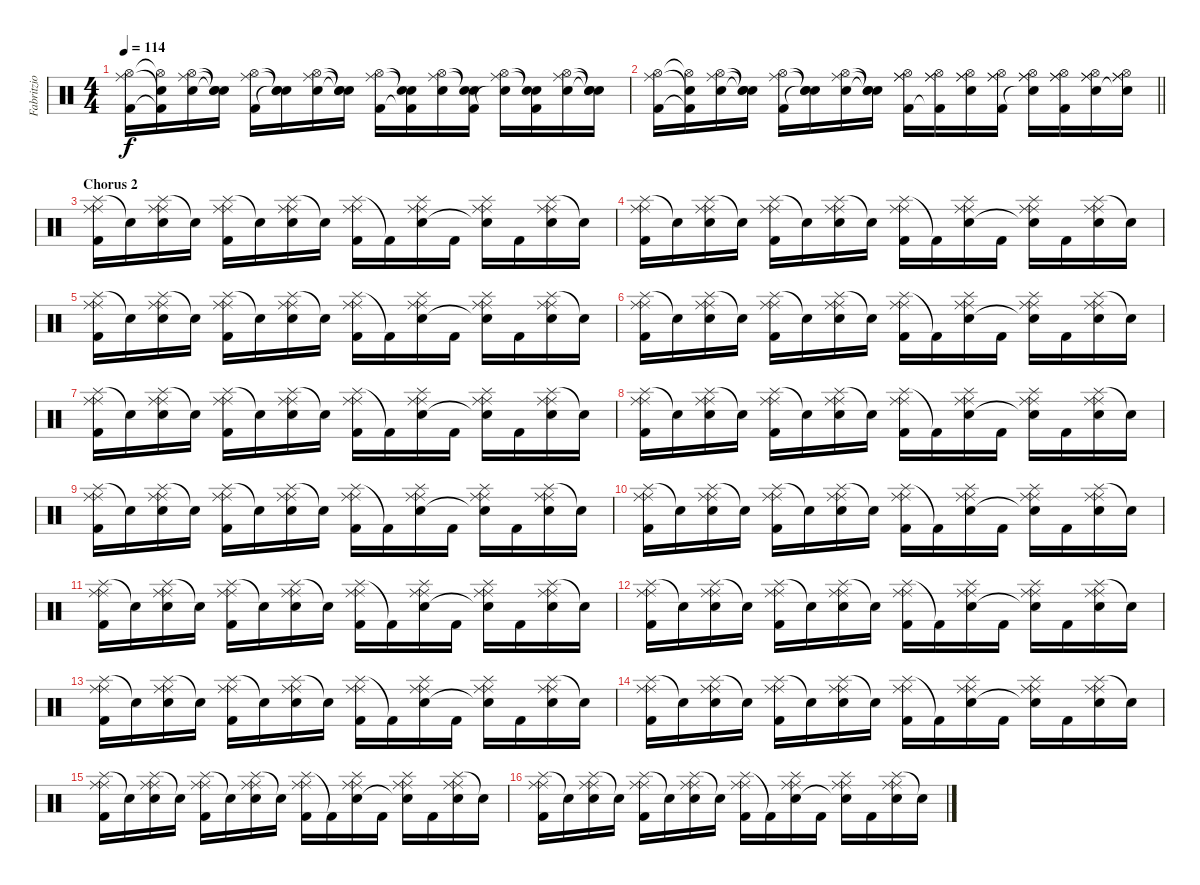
\track ("Fabritzio Moretti" "Fabritzio ") {instrument percussion}
\staff {score}
\articulation defaults
\ts (4 4)
\tempo 114
\clef neutral
\ks c
("Hi-Hat (open)" "Ride (middle)" "Kick (hit) 2").16{dy f} ("Hi-Hat (open)"{t} "Snare (hit)"{t} "Kick (hit) 2"{t}).16 ("Hi-Hat (open)" "Ride (middle)" "Snare (hit) 2").16 ("Snare (hit)"{t} "Snare (hit)"{t} "Snare (hit)"{t}).16 ("Hi-Hat (open)" "Ride (middle)" "Kick (hit) 2").16 ("Snare (hit)"{t} "Snare (hit)"{t} "Snare (hit)"{t}).16 ("Hi-Hat (open)" "Ride (middle)" "Snare (hit) 2").16 ("Snare (hit)"{t} "Snare (hit)"{t} "Snare (hit)"{t}).16 ("Hi-Hat (open)" "Ride (middle)" "Kick (hit) 2").16 ("Snare (hit)"{t} "Snare (hit)"{t} "Kick (hit) 2"{t}).16 ("Hi-Hat (open)" "Ride (middle)" "Snare (hit) 2").16 ("Snare (hit)"{t} "Snare (hit)"{t} "Kick (hit) 2").16 ("Hi-Hat (open)" "Ride (middle)" "Snare (hit)"{t}).16 ("Snare (hit)"{t} "Snare (hit)"{t} "Kick (hit) 2").16 ("Hi-Hat (open)" "Ride (middle)" "Snare (hit) 2").16 ("Snare (hit)"{t} "Snare (hit)"{t} "Snare (hit)"{t}).16 |
\barLineRight lightlight
("Hi-Hat (open)" "Ride (middle)" "Kick (hit) 2").16 ("Hi-Hat (open)"{t} "Snare (hit)"{t} "Kick (hit) 2"{t}).16 ("Hi-Hat (open)" "Ride (middle)" "Snare (hit) 2").16 ("Snare (hit)"{t} "Snare (hit)"{t} "Snare (hit)"{t}).16 ("Hi-Hat (open)" "Ride (middle)" "Kick (hit) 2").16 ("Snare (hit)"{t} "Snare (hit)"{t} "Snare (hit)"{t}).16 ("Hi-Hat (open)" "Ride (middle)" "Snare (hit) 2").16 ("Snare (hit)"{t} "Snare (hit)"{t} "Snare (hit)"{t}).16 ("Ride (middle)" "Hi-Hat (open)" "Ride (middle)" "Kick (hit) 2").16 ("Ride (middle)" "Hi-Hat (open)" "Ride (middle)" "Kick (hit) 2"{t}).16 ("Ride (middle)" "Hi-Hat (open)" "Ride (middle)" "Snare (hit) 2").16 ("Ride (middle)" "Hi-Hat (open)" "Ride (middle)" "Kick (hit) 2").16 ("Ride (middle)" "Hi-Hat (open)" "Ride (middle)" "Snare (hit)"{t}).16 ("Ride (middle)" "Hi-Hat (open)" "Ride (middle)" "Kick (hit) 2").16 ("Ride (middle)" "Hi-Hat (open)" "Ride (middle)" "Snare (hit) 2").16 ("Ride (middle)" "Hi-Hat (open)" "Ride (middle)" "Snare (hit)"{t}).16 |
\section ("" "Chorus 2")
("Splash (hit)" "Ride (middle)" "Ride (middle)" "Kick (hit) 2").16 "Snare (hit)"{t}.16 ("Splash (hit)" "Ride (middle)" "Ride (middle)" "Snare (hit) 2").16 "Snare (hit)"{t}.16 ("Splash (hit)" "Ride (middle)" "Ride (middle)" "Kick (hit) 2").16 "Snare (hit)"{t}.16 ("Splash (hit)" "Ride (middle)" "Ride (middle)" "Snare (hit) 2").16 "Snare (hit)"{t}.16 ("Splash (hit)" "Ride (middle)" "Ride (middle)" "Kick (hit) 2").16 "Kick (hit) 2"{t}.16 ("Splash (hit)" "Ride (middle)" "Ride (middle)" "Snare (hit) 2").16 "Kick (hit) 2".16 ("Splash (hit)" "Ride (middle)" "Ride (middle)" "Snare (hit)"{t}).16 "Kick (hit) 2".16 ("Splash (hit)" "Ride (middle)" "Ride (middle)" "Snare (hit) 2").16 "Snare (hit)"{t}.16 |
("Splash (hit)" "Ride (middle)" "Ride (middle)" "Kick (hit) 2").16 "Snare (hit)"{t}.16 ("Splash (hit)" "Ride (middle)" "Ride (middle)" "Snare (hit) 2").16 "Snare (hit)"{t}.16 ("Splash (hit)" "Ride (middle)" "Ride (middle)" "Kick (hit) 2").16 "Snare (hit)"{t}.16 ("Splash (hit)" "Ride (middle)" "Ride (middle)" "Snare (hit) 2").16 "Snare (hit)"{t}.16 ("Splash (hit)" "Ride (middle)" "Ride (middle)" "Kick (hit) 2").16 "Kick (hit) 2"{t}.16 ("Splash (hit)" "Ride (middle)" "Ride (middle)" "Snare (hit) 2").16 "Kick (hit) 2".16 ("Splash (hit)" "Ride (middle)" "Ride (middle)" "Snare (hit)"{t}).16 "Kick (hit) 2".16 ("Splash (hit)" "Ride (middle)" "Ride (middle)" "Snare (hit) 2").16 "Snare (hit)"{t}.16 |
("Splash (hit)" "Ride (middle)" "Ride (middle)" "Kick (hit) 2").16 "Snare (hit)"{t}.16 ("Splash (hit)" "Ride (middle)" "Ride (middle)" "Snare (hit) 2").16 "Snare (hit)"{t}.16 ("Splash (hit)" "Ride (middle)" "Ride (middle)" "Kick (hit) 2").16 "Snare (hit)"{t}.16 ("Splash (hit)" "Ride (middle)" "Ride (middle)" "Snare (hit) 2").16 "Snare (hit)"{t}.16 ("Splash (hit)" "Ride (middle)" "Ride (middle)" "Kick (hit) 2").16 "Kick (hit) 2"{t}.16 ("Splash (hit)" "Ride (middle)" "Ride (middle)" "Snare (hit) 2").16 "Kick (hit) 2".16 ("Splash (hit)" "Ride (middle)" "Ride (middle)" "Snare (hit)"{t}).16 "Kick (hit) 2".16 ("Splash (hit)" "Ride (middle)" "Ride (middle)" "Snare (hit) 2").16 "Snare (hit)"{t}.16 |
("Splash (hit)" "Ride (middle)" "Ride (middle)" "Kick (hit) 2").16 "Snare (hit)"{t}.16 ("Splash (hit)" "Ride (middle)" "Ride (middle)" "Snare (hit) 2").16 "Snare (hit)"{t}.16 ("Splash (hit)" "Ride (middle)" "Ride (middle)" "Kick (hit) 2").16 "Snare (hit)"{t}.16 ("Splash (hit)" "Ride (middle)" "Ride (middle)" "Snare (hit) 2").16 "Snare (hit)"{t}.16 ("Splash (hit)" "Ride (middle)" "Ride (middle)" "Kick (hit) 2").16 "Kick (hit) 2"{t}.16 ("Splash (hit)" "Ride (middle)" "Ride (middle)" "Snare (hit) 2").16 "Kick (hit) 2".16 ("Splash (hit)" "Ride (middle)" "Ride (middle)" "Snare (hit)"{t}).16 "Kick (hit) 2".16 ("Splash (hit)" "Ride (middle)" "Ride (middle)" "Snare (hit) 2").16 "Snare (hit)"{t}.16 |
("Splash (hit)" "Ride (middle)" "Ride (middle)" "Kick (hit) 2").16 "Snare (hit)"{t}.16 ("Splash (hit)" "Ride (middle)" "Ride (middle)" "Snare (hit) 2").16 "Snare (hit)"{t}.16 ("Splash (hit)" "Ride (middle)" "Ride (middle)" "Kick (hit) 2").16 "Snare (hit)"{t}.16 ("Splash (hit)" "Ride (middle)" "Ride (middle)" "Snare (hit) 2").16 "Snare (hit)"{t}.16 ("Splash (hit)" "Ride (middle)" "Ride (middle)" "Kick (hit) 2").16 "Kick (hit) 2"{t}.16 ("Splash (hit)" "Ride (middle)" "Ride (middle)" "Snare (hit) 2").16 "Kick (hit) 2".16 ("Splash (hit)" "Ride (middle)" "Ride (middle)" "Snare (hit)"{t}).16 "Kick (hit) 2".16 ("Splash (hit)" "Ride (middle)" "Ride (middle)" "Snare (hit) 2").16 "Snare (hit)"{t}.16 |
("Splash (hit)" "Ride (middle)" "Ride (middle)" "Kick (hit) 2").16 "Snare (hit)"{t}.16 ("Splash (hit)" "Ride (middle)" "Ride (middle)" "Snare (hit) 2").16 "Snare (hit)"{t}.16 ("Splash (hit)" "Ride (middle)" "Ride (middle)" "Kick (hit) 2").16 "Snare (hit)"{t}.16 ("Splash (hit)" "Ride (middle)" "Ride (middle)" "Snare (hit) 2").16 "Snare (hit)"{t}.16 ("Splash (hit)" "Ride (middle)" "Ride (middle)" "Kick (hit) 2").16 "Kick (hit) 2"{t}.16 ("Splash (hit)" "Ride (middle)" "Ride (middle)" "Snare (hit) 2").16 "Kick (hit) 2".16 ("Splash (hit)" "Ride (middle)" "Ride (middle)" "Snare (hit)"{t}).16 "Kick (hit) 2".16 ("Splash (hit)" "Ride (middle)" "Ride (middle)" "Snare (hit) 2").16 "Snare (hit)"{t}.16 |
("Splash (hit)" "Ride (middle)" "Ride (middle)" "Kick (hit) 2").16 "Snare (hit)"{t}.16 ("Splash (hit)" "Ride (middle)" "Ride (middle)" "Snare (hit) 2").16 "Snare (hit)"{t}.16 ("Splash (hit)" "Ride (middle)" "Ride (middle)" "Kick (hit) 2").16 "Snare (hit)"{t}.16 ("Splash (hit)" "Ride (middle)" "Ride (middle)" "Snare (hit) 2").16 "Snare (hit)"{t}.16 ("Splash (hit)" "Ride (middle)" "Ride (middle)" "Kick (hit) 2").16 "Kick (hit) 2"{t}.16 ("Splash (hit)" "Ride (middle)" "Ride (middle)" "Snare (hit) 2").16 "Kick (hit) 2".16 ("Splash (hit)" "Ride (middle)" "Ride (middle)" "Snare (hit)"{t}).16 "Kick (hit) 2".16 ("Splash (hit)" "Ride (middle)" "Ride (middle)" "Snare (hit) 2").16 "Snare (hit)"{t}.16 |
("Splash (hit)" "Ride (middle)" "Ride (middle)" "Kick (hit) 2").16 "Snare (hit)"{t}.16 ("Splash (hit)" "Ride (middle)" "Ride (middle)" "Snare (hit) 2").16 "Snare (hit)"{t}.16 ("Splash (hit)" "Ride (middle)" "Ride (middle)" "Kick (hit) 2").16 "Snare (hit)"{t}.16 ("Splash (hit)" "Ride (middle)" "Ride (middle)" "Snare (hit) 2").16 "Snare (hit)"{t}.16 ("Splash (hit)" "Ride (middle)" "Ride (middle)" "Kick (hit) 2").16 "Kick (hit) 2"{t}.16 ("Splash (hit)" "Ride (middle)" "Ride (middle)" "Snare (hit) 2").16 "Kick (hit) 2".16 ("Splash (hit)" "Ride (middle)" "Ride (middle)" "Snare (hit)"{t}).16 "Kick (hit) 2".16 ("Splash (hit)" "Ride (middle)" "Ride (middle)" "Snare (hit) 2").16 "Snare (hit)"{t}.16 |
("Splash (hit)" "Ride (middle)" "Ride (middle)" "Kick (hit) 2").16 "Snare (hit)"{t}.16 ("Splash (hit)" "Ride (middle)" "Ride (middle)" "Snare (hit) 2").16 "Snare (hit)"{t}.16 ("Splash (hit)" "Ride (middle)" "Ride (middle)" "Kick (hit) 2").16 "Snare (hit)"{t}.16 ("Splash (hit)" "Ride (middle)" "Ride (middle)" "Snare (hit) 2").16 "Snare (hit)"{t}.16 ("Splash (hit)" "Ride (middle)" "Ride (middle)" "Kick (hit) 2").16 "Kick (hit) 2"{t}.16 ("Splash (hit)" "Ride (middle)" "Ride (middle)" "Snare (hit) 2").16 "Kick (hit) 2".16 ("Splash (hit)" "Ride (middle)" "Ride (middle)" "Snare (hit)"{t}).16 "Kick (hit) 2".16 ("Splash (hit)" "Ride (middle)" "Ride (middle)" "Snare (hit) 2").16 "Snare (hit)"{t}.16 |
("Splash (hit)" "Ride (middle)" "Ride (middle)" "Kick (hit) 2").16 "Snare (hit)"{t}.16 ("Splash (hit)" "Ride (middle)" "Ride (middle)" "Snare (hit) 2").16 "Snare (hit)"{t}.16 ("Splash (hit)" "Ride (middle)" "Ride (middle)" "Kick (hit) 2").16 "Snare (hit)"{t}.16 ("Splash (hit)" "Ride (middle)" "Ride (middle)" "Snare (hit) 2").16 "Snare (hit)"{t}.16 ("Splash (hit)" "Ride (middle)" "Ride (middle)" "Kick (hit) 2").16 "Kick (hit) 2"{t}.16 ("Splash (hit)" "Ride (middle)" "Ride (middle)" "Snare (hit) 2").16 "Kick (hit) 2".16 ("Splash (hit)" "Ride (middle)" "Ride (middle)" "Snare (hit)"{t}).16 "Kick (hit) 2".16 ("Splash (hit)" "Ride (middle)" "Ride (middle)" "Snare (hit) 2").16 "Snare (hit)"{t}.16 |
("Splash (hit)" "Ride (middle)" "Ride (middle)" "Kick (hit) 2").16 "Snare (hit)"{t}.16 ("Splash (hit)" "Ride (middle)" "Ride (middle)" "Snare (hit) 2").16 "Snare (hit)"{t}.16 ("Splash (hit)" "Ride (middle)" "Ride (middle)" "Kick (hit) 2").16 "Snare (hit)"{t}.16 ("Splash (hit)" "Ride (middle)" "Ride (middle)" "Snare (hit) 2").16 "Snare (hit)"{t}.16 ("Splash (hit)" "Ride (middle)" "Ride (middle)" "Kick (hit) 2").16 "Kick (hit) 2"{t}.16 ("Splash (hit)" "Ride (middle)" "Ride (middle)" "Snare (hit) 2").16 "Kick (hit) 2".16 ("Splash (hit)" "Ride (middle)" "Ride (middle)" "Snare (hit)"{t}).16 "Kick (hit) 2".16 ("Splash (hit)" "Ride (middle)" "Ride (middle)" "Snare (hit) 2").16 "Snare (hit)"{t}.16 |
("Splash (hit)" "Ride (middle)" "Ride (middle)" "Kick (hit) 2").16 "Snare (hit)"{t}.16 ("Splash (hit)" "Ride (middle)" "Ride (middle)" "Snare (hit) 2").16 "Snare (hit)"{t}.16 ("Splash (hit)" "Ride (middle)" "Ride (middle)" "Kick (hit) 2").16 "Snare (hit)"{t}.16 ("Splash (hit)" "Ride (middle)" "Ride (middle)" "Snare (hit) 2").16 "Snare (hit)"{t}.16 ("Splash (hit)" "Ride (middle)" "Ride (middle)" "Kick (hit) 2").16 "Kick (hit) 2"{t}.16 ("Splash (hit)" "Ride (middle)" "Ride (middle)" "Snare (hit) 2").16 "Kick (hit) 2".16 ("Splash (hit)" "Ride (middle)" "Ride (middle)" "Snare (hit)"{t}).16 "Kick (hit) 2".16 ("Splash (hit)" "Ride (middle)" "Ride (middle)" "Snare (hit) 2").16 "Snare (hit)"{t}.16 |
("Splash (hit)" "Ride (middle)" "Ride (middle)" "Kick (hit) 2").16 "Snare (hit)"{t}.16 ("Splash (hit)" "Ride (middle)" "Ride (middle)" "Snare (hit) 2").16 "Snare (hit)"{t}.16 ("Splash (hit)" "Ride (middle)" "Ride (middle)" "Kick (hit) 2").16 "Snare (hit)"{t}.16 ("Splash (hit)" "Ride (middle)" "Ride (middle)" "Snare (hit) 2").16 "Snare (hit)"{t}.16 ("Splash (hit)" "Ride (middle)" "Ride (middle)" "Kick (hit) 2").16 "Kick (hit) 2"{t}.16 ("Splash (hit)" "Ride (middle)" "Ride (middle)" "Snare (hit) 2").16 "Kick (hit) 2".16 ("Splash (hit)" "Ride (middle)" "Ride (middle)" "Snare (hit)"{t}).16 "Kick (hit) 2".16 ("Splash (hit)" "Ride (middle)" "Ride (middle)" "Snare (hit) 2").16 "Snare (hit)"{t}.16 |
("Splash (hit)" "Ride (middle)" "Ride (middle)" "Kick (hit) 2").16 "Snare (hit)"{t}.16 ("Splash (hit)" "Ride (middle)" "Ride (middle)" "Snare (hit) 2").16 "Snare (hit)"{t}.16 ("Splash (hit)" "Ride (middle)" "Ride (middle)" "Kick (hit) 2").16 "Snare (hit)"{t}.16 ("Splash (hit)" "Ride (middle)" "Ride (middle)" "Snare (hit) 2").16 "Snare (hit)"{t}.16 ("Splash (hit)" "Ride (middle)" "Ride (middle)" "Kick (hit) 2").16 "Kick (hit) 2"{t}.16 ("Splash (hit)" "Ride (middle)" "Ride (middle)" "Snare (hit) 2").16 "Kick (hit) 2".16 ("Splash (hit)" "Ride (middle)" "Ride (middle)" "Snare (hit)"{t}).16 "Kick (hit) 2".16 ("Splash (hit)" "Ride (middle)" "Ride (middle)" "Snare (hit) 2").16 "Snare (hit)"{t}.16
